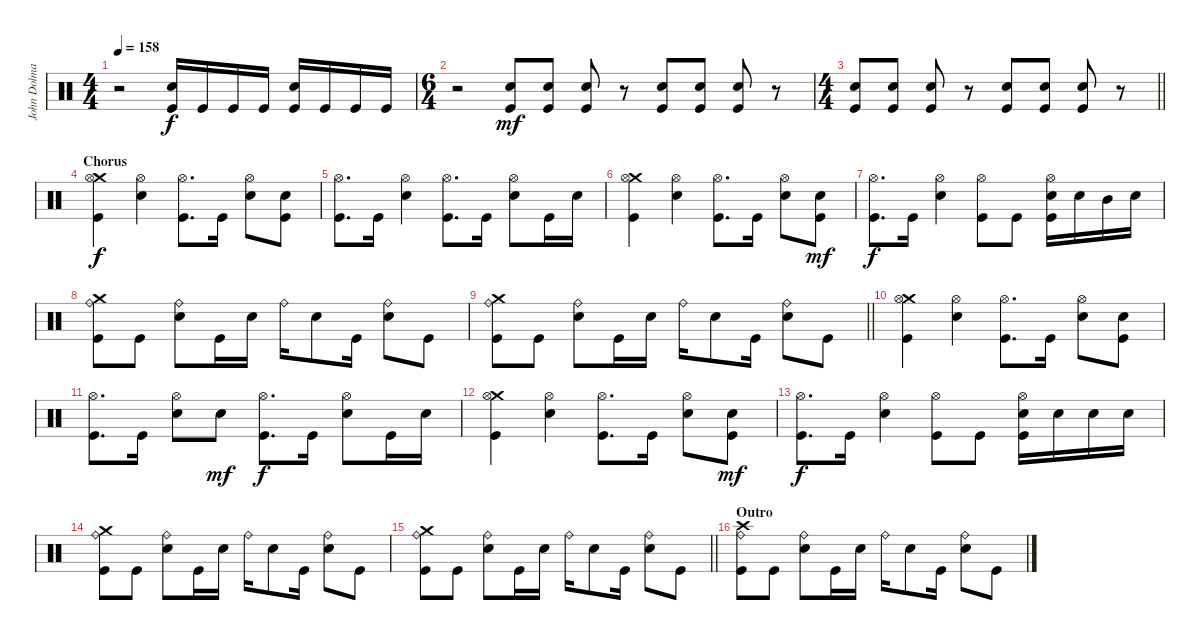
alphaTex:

\track ("John Dolmayan (drums)" "John Dolma") {instrument percussion}
\staff {score}
\articulation defaults
\ts (4 4)
\tempo 158
\clef neutral
\ks c
r.2{dy f} ("Snare (hit) 2" "Kick (hit)").16 "Kick (hit)".16 "Kick (hit)".16 "Kick (hit)".16 ("Snare (hit) 2" "Kick (hit)").16 "Kick (hit)".16 "Kick (hit)".16 "Kick (hit)".16 |
\ts (6 4)
r.2 ("Snare (hit) 2" "Kick (hit)").8{dy mf} ("Snare (hit) 2" "Kick (hit)").8 ("Snare (hit) 2" "Kick (hit)").8 r.8 ("Snare (hit) 2" "Kick (hit)").8 ("Snare (hit) 2" "Kick (hit)").8 ("Snare (hit) 2" "Kick (hit)").8 r.8 |
\ts (4 4)
\barLineRight lightlight
("Snare (hit) 2" "Kick (hit)").8 ("Snare (hit) 2" "Kick (hit)").8 ("Snare (hit) 2" "Kick (hit)").8 r.8 ("Snare (hit) 2" "Kick (hit)").8 ("Snare (hit) 2" "Kick (hit)").8 ("Snare (hit) 2" "Kick (hit)").8 r.8 |
\section ("" "Chorus")
("Crash medium (hit)" "Hi-Hat (open)" "Kick (hit)").4{dy f} ("Hi-Hat (open)" "Snare (hit) 2").4 ("Hi-Hat (open)" "Kick (hit)").8{d} "Kick (hit)".16 ("Hi-Hat (open)" "Snare (hit) 2").8 ("Snare (hit) 2" "Kick (hit)").8 |
("Hi-Hat (open)" "Kick (hit)").8{d} "Kick (hit)".16 ("Hi-Hat (open)" "Snare (hit) 2").4 ("Hi-Hat (open)" "Kick (hit)").8{d} "Kick (hit)".16 ("Hi-Hat (open)" "Snare (hit) 2").8 "Kick (hit)".16 "Snare (hit) 2".16 |
("Crash medium (hit)" "Hi-Hat (open)" "Kick (hit)").4 ("Hi-Hat (open)" "Snare (hit) 2").4 ("Hi-Hat (open)" "Kick (hit)").8{d} "Kick (hit)".16 ("Hi-Hat (open)" "Snare (hit) 2").8 ("Snare (hit) 2" "Kick (hit)").8{dy mf} |
("Hi-Hat (open)" "Kick (hit)").8{d dy f} "Kick (hit)".16 ("Hi-Hat (open)" "Snare (hit) 2").4 ("Hi-Hat (open)" "Kick (hit)").8 "Kick (hit)".8 ("Hi-Hat (open)" "Snare (hit) 2" "Kick (hit)").16 "Snare (hit) 2".16 "Mid Tom (hit)".16 "Snare (hit) 2".16 |
("Crash medium (hit)" "Ride (bell)" "Kick (hit)").8 "Kick (hit)".8 ("Ride (bell)" "Snare (hit) 2").8 "Kick (hit)".16 "Snare (hit) 2".16 "Ride (bell)".16 "Snare (hit) 2".8 "Kick (hit)".16 ("Ride (bell)" "Snare (hit) 2").8 "Kick (hit)".8 |
\barLineRight lightlight
("Crash medium (hit)" "Ride (bell)" "Kick (hit)").8 "Kick (hit)".8 ("Ride (bell)" "Snare (hit) 2").8 "Kick (hit)".16 "Snare (hit) 2".16 "Ride (bell)".16 "Snare (hit) 2".8 "Kick (hit)".16 ("Ride (bell)" "Snare (hit) 2").8 "Kick (hit)".8 |
("Crash medium (hit)" "Hi-Hat (open)" "Kick (hit)").4 ("Hi-Hat (open)" "Snare (hit) 2").4 ("Hi-Hat (open)" "Kick (hit)").8{d} "Kick (hit)".16 ("Hi-Hat (open)" "Snare (hit) 2").8 ("Snare (hit) 2" "Kick (hit)").8 |
("Hi-Hat (open)" "Kick (hit)").8{d} "Kick (hit)".16 ("Hi-Hat (open)" "Snare (hit) 2").8 "Snare (hit) 2".8{dy mf} ("Hi-Hat (open)" "Kick (hit)").8{d dy f} "Kick (hit)".16 ("Hi-Hat (open)" "Snare (hit) 2").8 "Kick (hit)".16 "Snare (hit) 2".16 |
("Crash medium (hit)" "Hi-Hat (open)" "Kick (hit)").4 ("Hi-Hat (open)" "Snare (hit) 2").4 ("Hi-Hat (open)" "Kick (hit)").8{d} "Kick (hit)".16 ("Hi-Hat (open)" "Snare (hit) 2").8 ("Snare (hit) 2" "Kick (hit)").8{dy mf} |
("Hi-Hat (open)" "Kick (hit)").8{d dy f} "Kick (hit)".16 ("Hi-Hat (open)" "Snare (hit) 2").4 ("Hi-Hat (open)" "Kick (hit)").8 "Kick (hit)".8 ("Hi-Hat (open)" "Snare (hit) 2" "Kick (hit)").16 "Snare (hit) 2".16 "Snare (hit) 2".16 "Snare (hit) 2".16 |
("Crash medium (hit)" "Ride (bell)" "Kick (hit)").8 "Kick (hit)".8 ("Ride (bell)" "Snare (hit) 2").8 "Kick (hit)".16 "Snare (hit) 2".16 "Ride (bell)".16 "Snare (hit) 2".8 "Kick (hit)".16 ("Ride (bell)" "Snare (hit) 2").8 "Kick (hit)".8 |
\barLineRight lightlight
("Crash medium (hit)" "Ride (bell)" "Kick (hit)").8 "Kick (hit)".8 ("Ride (bell)" "Snare (hit) 2").8 "Kick (hit)".16 "Snare (hit) 2".16 "Ride (bell)".16 "Snare (hit) 2".8 "Kick (hit)".16 ("Ride (bell)" "Snare (hit) 2").8 "Kick (hit)".8 |
\section ("" "Outro")
("Crash high (hit)" "Ride (bell)" "Kick (hit)").8 "Kick (hit)".8 ("Ride (bell)" "Snare (hit) 2").8 "Kick (hit)".16 "Snare (hit) 2".16 "Ride (bell)".16 "Snare (hit) 2".8 "Kick (hit)".16 ("Ride (bell)" "Snare (hit) 2").8 "Kick (hit)".8
